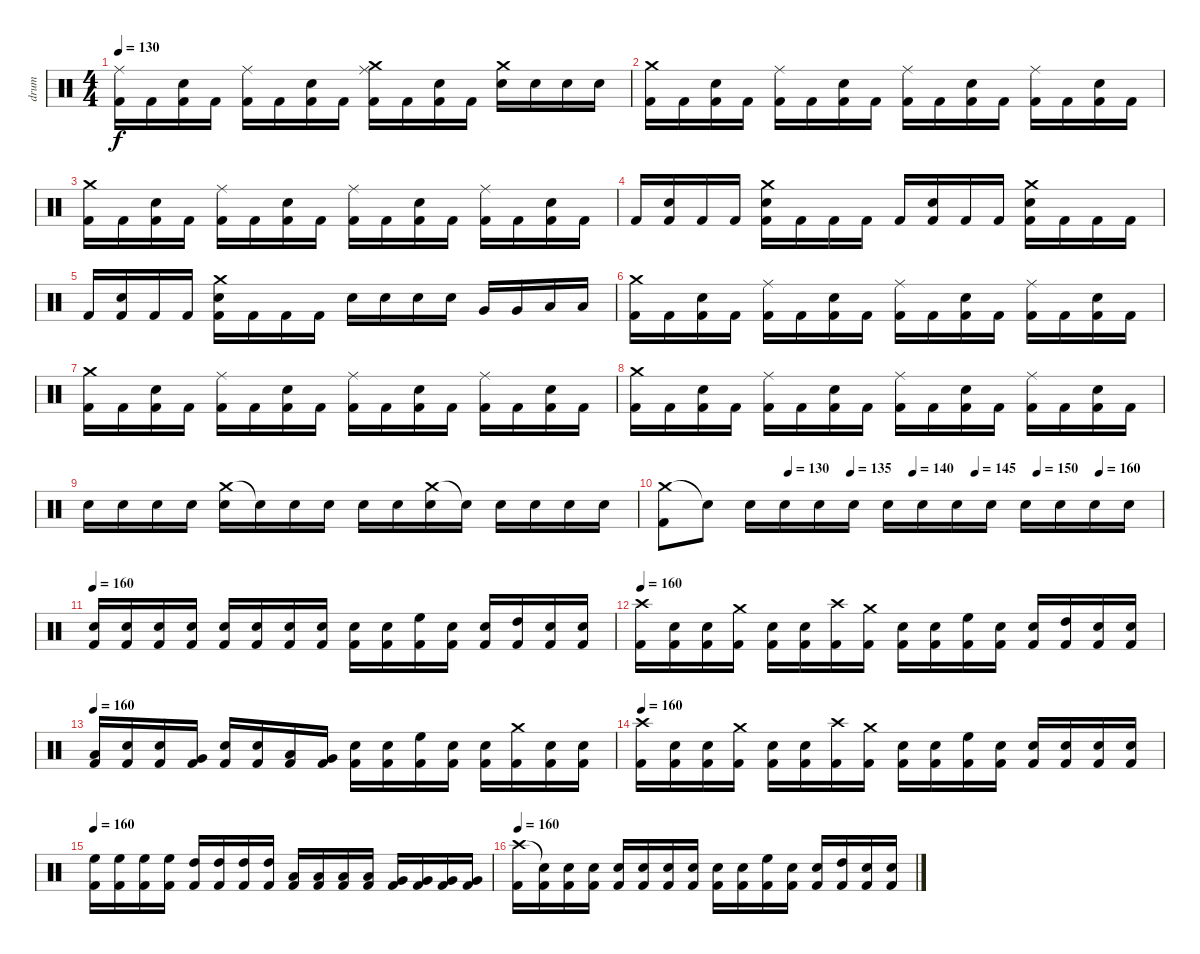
\track ("drum" "drum") {instrument percussion}
\staff {score}
\articulation defaults
\ts (4 4)
\tempo 130
\clef neutral
\ks c
("Ride (middle)" "Kick (hit) 2").16{dy f} "Kick (hit) 2".16 ("Snare (hit) 2" "Kick (hit) 2").16 "Kick (hit) 2".16 ("Ride (middle)" "Kick (hit) 2").16 "Kick (hit) 2".16 ("Snare (hit) 2" "Kick (hit) 2").16 "Kick (hit) 2".16 ("Ride (middle)" "Crash medium (hit)" "Kick (hit) 2").16 "Kick (hit) 2".16 ("Snare (hit) 2" "Kick (hit) 2").16 "Kick (hit) 2".16 ("Crash medium (hit)" "Snare (hit) 2").16 "Snare (hit) 2".16 "Snare (hit) 2".16 "Snare (hit) 2".16 |
("Crash medium (hit)" "Kick (hit) 2").16 "Kick (hit) 2".16 ("Snare (hit) 2" "Kick (hit) 2").16 "Kick (hit) 2".16 ("Ride (middle)" "Kick (hit) 2").16 "Kick (hit) 2".16 ("Snare (hit) 2" "Kick (hit) 2").16 "Kick (hit) 2".16 ("Ride (middle)" "Kick (hit) 2").16 "Kick (hit) 2".16 ("Snare (hit) 2" "Kick (hit) 2").16 "Kick (hit) 2".16 ("Ride (middle)" "Kick (hit) 2").16 "Kick (hit) 2".16 ("Snare (hit) 2" "Kick (hit) 2").16 "Kick (hit) 2".16 |
("Crash medium (hit)" "Kick (hit) 2").16 "Kick (hit) 2".16 ("Snare (hit) 2" "Kick (hit) 2").16 "Kick (hit) 2".16 ("Ride (middle)" "Kick (hit) 2").16 "Kick (hit) 2".16 ("Snare (hit) 2" "Kick (hit) 2").16 "Kick (hit) 2".16 ("Ride (middle)" "Kick (hit) 2").16 "Kick (hit) 2".16 ("Snare (hit) 2" "Kick (hit) 2").16 "Kick (hit) 2".16 ("Ride (middle)" "Kick (hit) 2").16 "Kick (hit) 2".16 ("Snare (hit) 2" "Kick (hit) 2").16 "Kick (hit) 2".16 |
"Kick (hit) 2".16 ("Snare (hit) 2" "Kick (hit) 2").16 "Kick (hit) 2".16 "Kick (hit) 2".16 ("Crash medium (hit)" "Snare (hit) 2" "Kick (hit) 2").16 "Kick (hit) 2".16 "Kick (hit) 2".16 "Kick (hit) 2".16 "Kick (hit) 2".16 ("Snare (hit) 2" "Kick (hit) 2").16 "Kick (hit) 2".16 "Kick (hit) 2".16 ("Crash medium (hit)" "Snare (hit) 2" "Kick (hit) 2").16 "Kick (hit) 2".16 "Kick (hit) 2".16 "Kick (hit) 2".16 |
"Kick (hit) 2".16 ("Snare (hit) 2" "Kick (hit) 2").16 "Kick (hit) 2".16 "Kick (hit) 2".16 ("Crash medium (hit)" "Snare (hit) 2" "Kick (hit) 2").16 "Kick (hit) 2".16 "Kick (hit) 2".16 "Kick (hit) 2".16 "Snare (hit) 2".16 "Snare (hit) 2".16 "Snare (hit) 2".16 "Snare (hit) 2".16 "Very Low Tom (hit)".16 "Very Low Tom (hit)".16 "Low Floor Tom (hit)".16 "Low Floor Tom (hit)".16 |
("Crash medium (hit)" "Kick (hit) 2").16 "Kick (hit) 2".16 ("Snare (hit) 2" "Kick (hit) 2").16 "Kick (hit) 2".16 ("Ride (middle)" "Kick (hit) 2").16 "Kick (hit) 2".16 ("Snare (hit) 2" "Kick (hit) 2").16 "Kick (hit) 2".16 ("Ride (middle)" "Kick (hit) 2").16 "Kick (hit) 2".16 ("Snare (hit) 2" "Kick (hit) 2").16 "Kick (hit) 2".16 ("Ride (middle)" "Kick (hit) 2").16 "Kick (hit) 2".16 ("Snare (hit) 2" "Kick (hit) 2").16 "Kick (hit) 2".16 |
("Crash medium (hit)" "Kick (hit) 2").16 "Kick (hit) 2".16 ("Snare (hit) 2" "Kick (hit) 2").16 "Kick (hit) 2".16 ("Ride (middle)" "Kick (hit) 2").16 "Kick (hit) 2".16 ("Snare (hit) 2" "Kick (hit) 2").16 "Kick (hit) 2".16 ("Ride (middle)" "Kick (hit) 2").16 "Kick (hit) 2".16 ("Snare (hit) 2" "Kick (hit) 2").16 "Kick (hit) 2".16 ("Ride (middle)" "Kick (hit) 2").16 "Kick (hit) 2".16 ("Snare (hit) 2" "Kick (hit) 2").16 "Kick (hit) 2".16 |
("Crash medium (hit)" "Kick (hit) 2").16 "Kick (hit) 2".16 ("Snare (hit) 2" "Kick (hit) 2").16 "Kick (hit) 2".16 ("Ride (middle)" "Kick (hit) 2").16 "Kick (hit) 2".16 ("Snare (hit) 2" "Kick (hit) 2").16 "Kick (hit) 2".16 ("Ride (middle)" "Kick (hit) 2").16 "Kick (hit) 2".16 ("Snare (hit) 2" "Kick (hit) 2").16 "Kick (hit) 2".16 ("Ride (middle)" "Kick (hit) 2").16 "Kick (hit) 2".16 ("Snare (hit) 2" "Kick (hit) 2").16 "Kick (hit) 2".16 |
"Snare (hit) 2".16 "Snare (hit) 2".16 "Snare (hit) 2".16 "Snare (hit) 2".16 ("Crash medium (hit)" "Snare (hit) 2").16 "Snare (hit)"{t}.16 "Snare (hit) 2".16 "Snare (hit) 2".16 "Snare (hit) 2".16 "Snare (hit) 2".16 ("Crash medium (hit)" "Snare (hit) 2").16 "Snare (hit)"{t}.16 "Snare (hit) 2".16 "Snare (hit) 2".16 "Snare (hit) 2".16 "Snare (hit) 2".16 |
\tempo (130 0.25)
\tempo (135 0.375)
\tempo (140 0.5)
\tempo (145 0.625)
\tempo (150 0.75)
\tempo (160 0.875)
("Crash medium (hit)" "Kick (hit) 2").8 "Snare (hit)"{t}.8 "Snare (hit) 2".16{volume 10} "Snare (hit) 2".16 "Snare (hit) 2".16{volume 11} "Snare (hit) 2".16 "Snare (hit) 2".16{volume 12} "Snare (hit) 2".16 "Snare (hit) 2".16{volume 13} "Snare (hit) 2".16 "Snare (hit) 2".16{volume 14} "Snare (hit) 2".16 "Snare (hit) 2".16{volume 16} "Snare (hit) 2".16 |
\tempo 160
("Snare (hit) 2" "Kick (hit) 2").16 ("Snare (hit) 2" "Kick (hit) 2").16 ("Snare (hit) 2" "Kick (hit) 2").16 ("Snare (hit) 2" "Kick (hit) 2").16 ("Snare (hit) 2" "Kick (hit) 2").16 ("Snare (hit) 2" "Kick (hit) 2").16 ("Snare (hit) 2" "Kick (hit) 2").16 ("Snare (hit) 2" "Kick (hit) 2").16 ("Snare (hit) 2" "Kick (hit) 2").16 ("Snare (hit) 2" "Kick (hit) 2").16 ("High Floor Tom (hit)" "Kick (hit) 2").16 ("Snare (hit) 2" "Kick (hit) 2").16 ("Snare (hit) 2" "Kick (hit) 2").16 ("High Tom (hit)" "Kick (hit) 2").16 ("Snare (hit) 2" "Kick (hit) 2").16 ("Snare (hit) 2" "Kick (hit) 2").16 |
\tempo 160
("Crash high (hit)" "Kick (hit) 2").16 ("Snare (hit) 2" "Kick (hit) 2").16 ("Snare (hit) 2" "Kick (hit) 2").16 ("Crash medium (hit)" "Kick (hit) 2").16 ("Snare (hit) 2" "Kick (hit) 2").16 ("Snare (hit) 2" "Kick (hit) 2").16 ("Crash high (hit)" "Kick (hit) 2").16 ("Crash medium (hit)" "Kick (hit) 2").16 ("Snare (hit) 2" "Kick (hit) 2").16 ("Snare (hit) 2" "Kick (hit) 2").16 ("High Floor Tom (hit)" "Kick (hit) 2").16 ("Snare (hit) 2" "Kick (hit) 2").16 ("Snare (hit) 2" "Kick (hit) 2").16 ("High Tom (hit)" "Kick (hit) 2").16 ("Snare (hit) 2" "Kick (hit) 2").16 ("Snare (hit) 2" "Kick (hit) 2").16 |
\tempo 160
("Low Tom (hit)" "Kick (hit) 2").16 ("Snare (hit) 2" "Kick (hit) 2").16 ("Snare (hit) 2" "Kick (hit) 2").16 ("Very Low Tom (hit)" "Kick (hit) 2").16 ("Snare (hit) 2" "Kick (hit) 2").16 ("Snare (hit) 2" "Kick (hit) 2").16 ("Low Tom (hit)" "Kick (hit) 2").16 ("Very Low Tom (hit)" "Kick (hit) 2").16 ("Snare (hit) 2" "Kick (hit) 2").16 ("Snare (hit) 2" "Kick (hit) 2").16 ("High Floor Tom (hit)" "Kick (hit) 2").16 ("Snare (hit) 2" "Kick (hit) 2").16 ("Snare (hit) 2" "Kick (hit) 2").16 ("Crash medium (hit)" "Kick (hit) 2").16 ("Snare (hit) 2" "Kick (hit) 2").16 ("Snare (hit) 2" "Kick (hit) 2").16 |
\tempo 160
("Crash high (hit)" "Kick (hit) 2").16 ("Snare (hit) 2" "Kick (hit) 2").16 ("Snare (hit) 2" "Kick (hit) 2").16 ("Crash medium (hit)" "Kick (hit) 2").16 ("Snare (hit) 2" "Kick (hit) 2").16 ("Snare (hit) 2" "Kick (hit) 2").16 ("Crash high (hit)" "Kick (hit) 2").16 ("Crash medium (hit)" "Kick (hit) 2").16 ("Snare (hit) 2" "Kick (hit) 2").16 ("Snare (hit) 2" "Kick (hit) 2").16 ("High Floor Tom (hit)" "Kick (hit) 2").16 ("Snare (hit) 2" "Kick (hit) 2").16 ("Snare (hit) 2" "Kick (hit) 2").16 ("Snare (hit) 2" "Kick (hit) 2").16 ("Snare (hit) 2" "Kick (hit) 2").16 ("Snare (hit) 2" "Kick (hit) 2").16 |
\tempo 160
("High Floor Tom (hit)" "Kick (hit) 2").16 ("High Floor Tom (hit)" "Kick (hit) 2").16 ("High Floor Tom (hit)" "Kick (hit) 2").16 ("High Floor Tom (hit)" "Kick (hit) 2").16 ("High Tom (hit)" "Kick (hit) 2").16 ("High Tom (hit)" "Kick (hit) 2").16 ("High Tom (hit)" "Kick (hit) 2").16 ("High Tom (hit)" "Kick (hit) 2").16 ("Low Tom (hit)" "Kick (hit) 2").16 ("Low Tom (hit)" "Kick (hit) 2").16 ("Low Tom (hit)" "Kick (hit) 2").16 ("Low Tom (hit)" "Kick (hit) 2").16 ("Very Low Tom (hit)" "Kick (hit) 2").16 ("Very Low Tom (hit)" "Kick (hit) 2").16 ("Very Low Tom (hit)" "Kick (hit) 2").16 ("Very Low Tom (hit)" "Kick (hit) 2").16 |
\tempo 160
("Crash high (hit)" "Kick (hit) 2").16 ("Snare (hit)"{t} "Kick (hit) 2").16 ("Snare (hit) 2" "Kick (hit) 2").16 ("Snare (hit) 2" "Kick (hit) 2").16 ("Snare (hit) 2" "Kick (hit) 2").16 ("Snare (hit) 2" "Kick (hit) 2").16 ("Snare (hit) 2" "Kick (hit) 2").16 ("Snare (hit) 2" "Kick (hit) 2").16 ("Snare (hit) 2" "Kick (hit) 2").16 ("Snare (hit) 2" "Kick (hit) 2").16 ("High Floor Tom (hit)" "Kick (hit) 2").16 ("Snare (hit) 2" "Kick (hit) 2").16 ("Snare (hit) 2" "Kick (hit) 2").16 ("High Tom (hit)" "Kick (hit) 2").16 ("Snare (hit) 2" "Kick (hit) 2").16 ("Snare (hit) 2" "Kick (hit) 2").16
